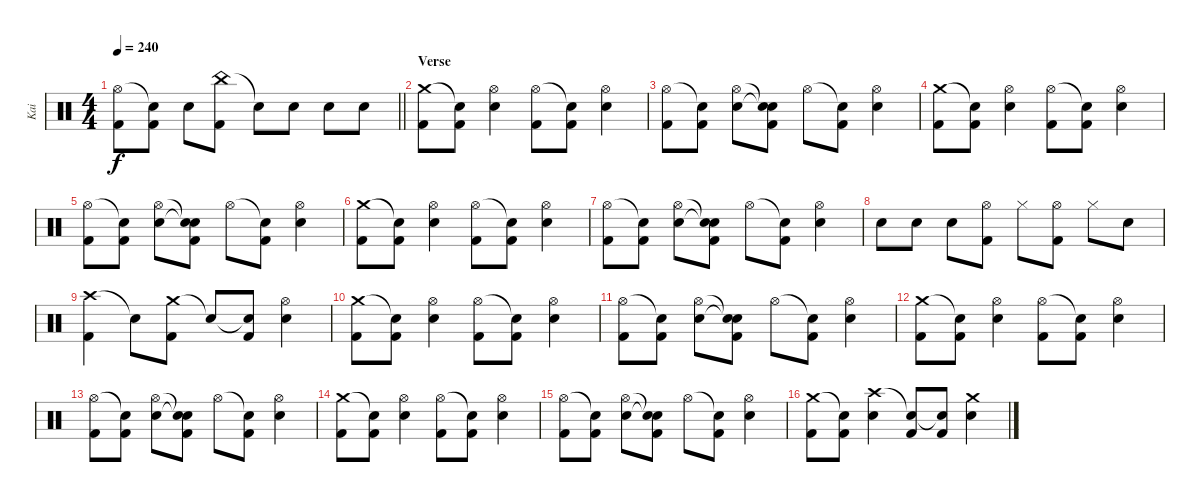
\track ("Kai" "Kai") {instrument percussion}
\staff {score}
\articulation defaults
\ts (4 4)
\tempo 240
\clef neutral
\barLineRight lightlight
\ks c
("Hi-Hat (open)" "Kick (hit) 2").8{dy f} ("Snare (hit)"{t} "Kick (hit) 2").8 "Snare (hit) 2".8 ("China (hit)" "Kick (hit) 2").8 "Snare (hit)"{t}.8 "Snare (hit) 2".8 "Snare (hit) 2".8 "Snare (hit) 2".8 |
\section ("" "Verse")
("Crash medium (hit)" "Kick (hit) 2").8 ("Snare (hit)"{t} "Kick (hit) 2").8 ("Hi-Hat (open)" "Snare (hit) 2").4 ("Hi-Hat (open)" "Kick (hit) 2").8 ("Snare (hit)"{t} "Kick (hit) 2").8 ("Hi-Hat (open)" "Snare (hit) 2").4 |
("Hi-Hat (open)" "Kick (hit) 2").8 ("Snare (hit)"{t} "Kick (hit) 2").8 ("Hi-Hat (open)" "Snare (hit) 2").8 ("Snare (hit)"{t} "Snare (hit)"{t} "Kick (hit) 2").8 "Hi-Hat (open)".8 ("Snare (hit)"{t} "Kick (hit) 2").8 ("Hi-Hat (open)" "Snare (hit) 2").4 |
("Crash medium (hit)" "Kick (hit) 2").8 ("Snare (hit)"{t} "Kick (hit) 2").8 ("Hi-Hat (open)" "Snare (hit) 2").4 ("Hi-Hat (open)" "Kick (hit) 2").8 ("Snare (hit)"{t} "Kick (hit) 2").8 ("Hi-Hat (open)" "Snare (hit) 2").4 |
("Hi-Hat (open)" "Kick (hit) 2").8 ("Snare (hit)"{t} "Kick (hit) 2").8 ("Hi-Hat (open)" "Snare (hit) 2").8 ("Snare (hit)"{t} "Snare (hit)"{t} "Kick (hit) 2").8 "Hi-Hat (open)".8 ("Snare (hit)"{t} "Kick (hit) 2").8 ("Hi-Hat (open)" "Snare (hit) 2").4 |
("Crash medium (hit)" "Kick (hit) 2").8 ("Snare (hit)"{t} "Kick (hit) 2").8 ("Hi-Hat (open)" "Snare (hit) 2").4 ("Hi-Hat (open)" "Kick (hit) 2").8 ("Snare (hit)"{t} "Kick (hit) 2").8 ("Hi-Hat (open)" "Snare (hit) 2").4 |
("Hi-Hat (open)" "Kick (hit) 2").8 ("Snare (hit)"{t} "Kick (hit) 2").8 ("Hi-Hat (open)" "Snare (hit) 2").8 ("Snare (hit)"{t} "Snare (hit)"{t} "Kick (hit) 2").8 "Hi-Hat (open)".8 ("Snare (hit)"{t} "Kick (hit) 2").8 ("Hi-Hat (open)" "Snare (hit) 2").4 |
"Snare (hit) 2".8 "Snare (hit) 2".8 "Snare (hit) 2".8 ("Hi-Hat (open)" "Kick (hit) 2").8 "Hi-Hat (closed)".8 ("Hi-Hat (open)" "Kick (hit) 2").8 "Hi-Hat (closed)".8 "Snare (hit) 2".8 |
("Crash high (hit)" "Kick (hit) 2").4 "Snare (hit)"{t}.8 ("Crash medium (hit)" "Kick (hit) 2").8 "Snare (hit)"{t}.8 ("Snare (hit)"{t} "Kick (hit) 2").8 ("Hi-Hat (open)" "Snare (hit) 2").4 |
("Crash medium (hit)" "Kick (hit) 2").8 ("Snare (hit)"{t} "Kick (hit) 2").8 ("Hi-Hat (open)" "Snare (hit) 2").4 ("Hi-Hat (open)" "Kick (hit) 2").8 ("Snare (hit)"{t} "Kick (hit) 2").8 ("Hi-Hat (open)" "Snare (hit) 2").4 |
("Hi-Hat (open)" "Kick (hit) 2").8 ("Snare (hit)"{t} "Kick (hit) 2").8 ("Hi-Hat (open)" "Snare (hit) 2").8 ("Snare (hit)"{t} "Snare (hit)"{t} "Kick (hit) 2").8 "Hi-Hat (open)".8 ("Snare (hit)"{t} "Kick (hit) 2").8 ("Hi-Hat (open)" "Snare (hit) 2").4 |
("Crash medium (hit)" "Kick (hit) 2").8 ("Snare (hit)"{t} "Kick (hit) 2").8 ("Hi-Hat (open)" "Snare (hit) 2").4 ("Hi-Hat (open)" "Kick (hit) 2").8 ("Snare (hit)"{t} "Kick (hit) 2").8 ("Hi-Hat (open)" "Snare (hit) 2").4 |
("Hi-Hat (open)" "Kick (hit) 2").8 ("Snare (hit)"{t} "Kick (hit) 2").8 ("Hi-Hat (open)" "Snare (hit) 2").8 ("Snare (hit)"{t} "Snare (hit)"{t} "Kick (hit) 2").8 "Hi-Hat (open)".8 ("Snare (hit)"{t} "Kick (hit) 2").8 ("Hi-Hat (open)" "Snare (hit) 2").4 |
("Crash medium (hit)" "Kick (hit) 2").8 ("Snare (hit)"{t} "Kick (hit) 2").8 ("Hi-Hat (open)" "Snare (hit) 2").4 ("Hi-Hat (open)" "Kick (hit) 2").8 ("Snare (hit)"{t} "Kick (hit) 2").8 ("Hi-Hat (open)" "Snare (hit) 2").4 |
("Hi-Hat (open)" "Kick (hit) 2").8 ("Snare (hit)"{t} "Kick (hit) 2").8 ("Hi-Hat (open)" "Snare (hit) 2").8 ("Snare (hit)"{t} "Snare (hit)"{t} "Kick (hit) 2").8 "Hi-Hat (open)".8 ("Snare (hit)"{t} "Kick (hit) 2").8 ("Hi-Hat (open)" "Snare (hit) 2").4 |
("Crash medium (hit)" "Kick (hit) 2").8 ("Snare (hit)"{t} "Kick (hit) 2").8 ("Crash high (hit)" "Snare (hit) 2").4 ("Snare (hit)"{t} "Kick (hit) 2").8 ("Snare (hit)"{t} "Kick (hit) 2").8 ("Crash medium (hit)" "Snare (hit) 2").4
